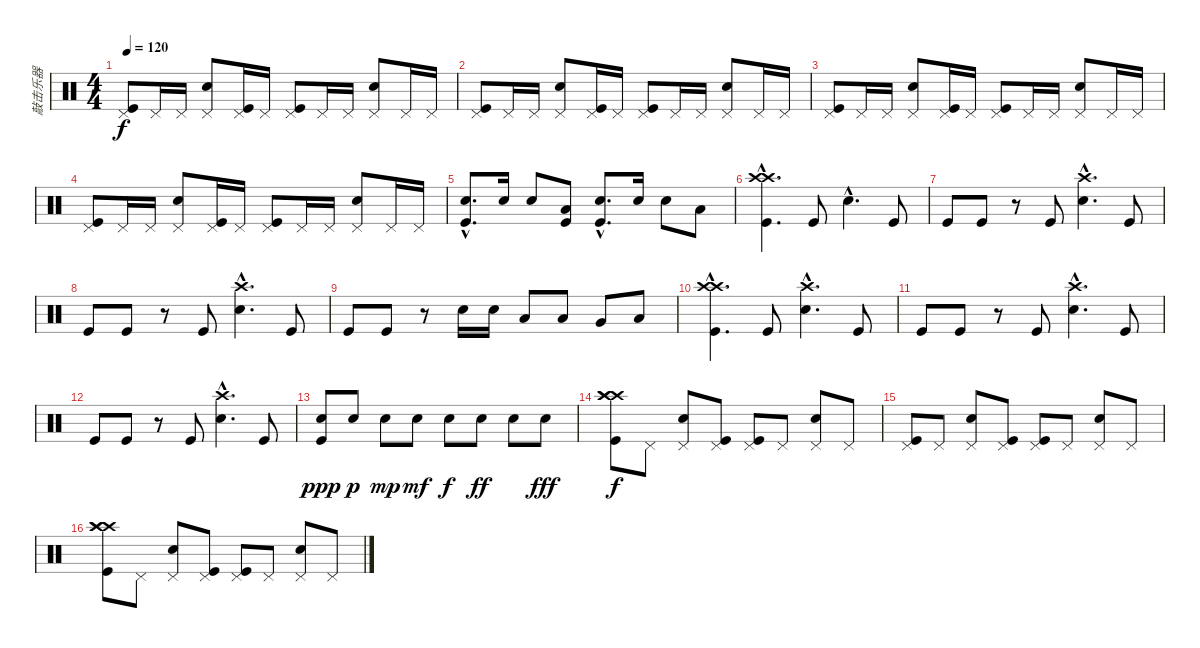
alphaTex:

\track ("敲击乐器" "敲击乐器") {instrument percussion}
\staff {score}
\articulation defaults
\ts (4 4)
\tempo 120
\clef neutral
\ks c
("Pedal Hi-Hat (hit)" "Kick (hit)").8{dy f} "Pedal Hi-Hat (hit)".16 "Pedal Hi-Hat (hit)".16 ("Pedal Hi-Hat (hit)" "Metronome (bell)").8 ("Pedal Hi-Hat (hit)" "Kick (hit)").16 "Pedal Hi-Hat (hit)".16 ("Pedal Hi-Hat (hit)" "Kick (hit)").8 "Pedal Hi-Hat (hit)".16 "Pedal Hi-Hat (hit)".16 ("Pedal Hi-Hat (hit)" "Metronome (bell)").8 "Pedal Hi-Hat (hit)".16 "Pedal Hi-Hat (hit)".16 |
("Pedal Hi-Hat (hit)" "Kick (hit)").8 "Pedal Hi-Hat (hit)".16 "Pedal Hi-Hat (hit)".16 ("Pedal Hi-Hat (hit)" "Metronome (bell)").8 ("Pedal Hi-Hat (hit)" "Kick (hit)").16 "Pedal Hi-Hat (hit)".16 ("Pedal Hi-Hat (hit)" "Kick (hit)").8 "Pedal Hi-Hat (hit)".16 "Pedal Hi-Hat (hit)".16 ("Pedal Hi-Hat (hit)" "Metronome (bell)").8 "Pedal Hi-Hat (hit)".16 "Pedal Hi-Hat (hit)".16 |
("Pedal Hi-Hat (hit)" "Kick (hit)").8 "Pedal Hi-Hat (hit)".16 "Pedal Hi-Hat (hit)".16 ("Pedal Hi-Hat (hit)" "Metronome (bell)").8 ("Pedal Hi-Hat (hit)" "Kick (hit)").16 "Pedal Hi-Hat (hit)".16 ("Pedal Hi-Hat (hit)" "Kick (hit)").8 "Pedal Hi-Hat (hit)".16 "Pedal Hi-Hat (hit)".16 ("Pedal Hi-Hat (hit)" "Metronome (bell)").8 "Pedal Hi-Hat (hit)".16 "Pedal Hi-Hat (hit)".16 |
("Pedal Hi-Hat (hit)" "Kick (hit)").8 "Pedal Hi-Hat (hit)".16 "Pedal Hi-Hat (hit)".16 ("Pedal Hi-Hat (hit)" "Metronome (bell)").8 ("Pedal Hi-Hat (hit)" "Kick (hit)").16 "Pedal Hi-Hat (hit)".16 ("Pedal Hi-Hat (hit)" "Kick (hit)").8 "Pedal Hi-Hat (hit)".16 "Pedal Hi-Hat (hit)".16 ("Pedal Hi-Hat (hit)" "Metronome (bell)").8 "Pedal Hi-Hat (hit)".16 "Pedal Hi-Hat (hit)".16 |
("Metronome (bell)"{hac} "Kick (hit)"{hac}).8{d} "Metronome (bell)".16 "Metronome (bell)".8 ("Low Tom (hit)" "Kick (hit)").8 ("Metronome (bell)"{hac} "Kick (hit)"{hac}).8{d} "Metronome (bell)".16 "Metronome (bell)".8 "Low Tom (hit)".8 |
("Crash high (hit)"{hac} "Crash high (hit)"{hac} "Kick (hit)"{hac}).4{d} "Kick (hit)".8 "Metronome (bell)"{hac}.4{d} "Kick (hit)".8 |
"Kick (hit)".8 "Kick (hit)".8 r.8 "Kick (hit)".8 ("Crash high (hit)"{hac} "Metronome (bell)"{hac}).4{d} "Kick (hit)".8 |
"Kick (hit)".8 "Kick (hit)".8 r.8 "Kick (hit)".8 ("Crash high (hit)"{hac} "Metronome (bell)"{hac}).4{d} "Kick (hit)".8 |
"Kick (hit)".8 "Kick (hit)".8 r.8 "Metronome (bell)".16 "Metronome (bell)".16 "Low Tom (hit)".8 "Low Tom (hit)".8 "Very Low Tom (hit)".8 "Low Floor Tom (hit)".8 |
("Crash high (hit)"{hac} "Crash high (hit)"{hac} "Kick (hit)"{hac}).4{d} "Kick (hit)".8 ("Crash high (hit)"{hac} "Metronome (bell)"{hac}).4{d} "Kick (hit)".8 |
"Kick (hit)".8 "Kick (hit)".8 r.8 "Kick (hit)".8 ("Crash high (hit)"{hac} "Metronome (bell)"{hac}).4{d} "Kick (hit)".8 |
"Kick (hit)".8 "Kick (hit)".8 r.8 "Kick (hit)".8 ("Crash high (hit)"{hac} "Metronome (bell)"{hac}).4{d} "Kick (hit)".8 |
("Metronome (bell)" "Kick (hit)").8{dy ppp} "Metronome (bell)".8{dy p} "Metronome (bell)".8{dy mp} "Metronome (bell)".8{dy mf} "Metronome (bell)".8{dy f} "Metronome (bell)".8{dy ff} "Metronome (bell)".8 "Metronome (bell)".8{dy fff} |
("Crash high (hit)" "Crash high (hit)" "Crash high (hit)" "Kick (hit)").8{dy f} "Pedal Hi-Hat (hit)".8 ("Pedal Hi-Hat (hit)" "Metronome (bell)").8 ("Pedal Hi-Hat (hit)" "Kick (hit)").8 ("Pedal Hi-Hat (hit)" "Kick (hit)").8 "Pedal Hi-Hat (hit)".8 ("Pedal Hi-Hat (hit)" "Metronome (bell)").8 "Pedal Hi-Hat (hit)".8 |
("Pedal Hi-Hat (hit)" "Kick (hit)").8 "Pedal Hi-Hat (hit)".8 ("Pedal Hi-Hat (hit)" "Metronome (bell)").8 ("Pedal Hi-Hat (hit)" "Kick (hit)").8 ("Pedal Hi-Hat (hit)" "Kick (hit)").8 "Pedal Hi-Hat (hit)".8 ("Pedal Hi-Hat (hit)" "Metronome (bell)").8 "Pedal Hi-Hat (hit)".8 |
("Crash high (hit)" "Crash high (hit)" "Crash high (hit)" "Kick (hit)").8 "Pedal Hi-Hat (hit)".8 ("Pedal Hi-Hat (hit)" "Metronome (bell)").8 ("Pedal Hi-Hat (hit)" "Kick (hit)").8 ("Pedal Hi-Hat (hit)" "Kick (hit)").8 "Pedal Hi-Hat (hit)".8 ("Pedal Hi-Hat (hit)" "Metronome (bell)").8 "Pedal Hi-Hat (hit)".8
